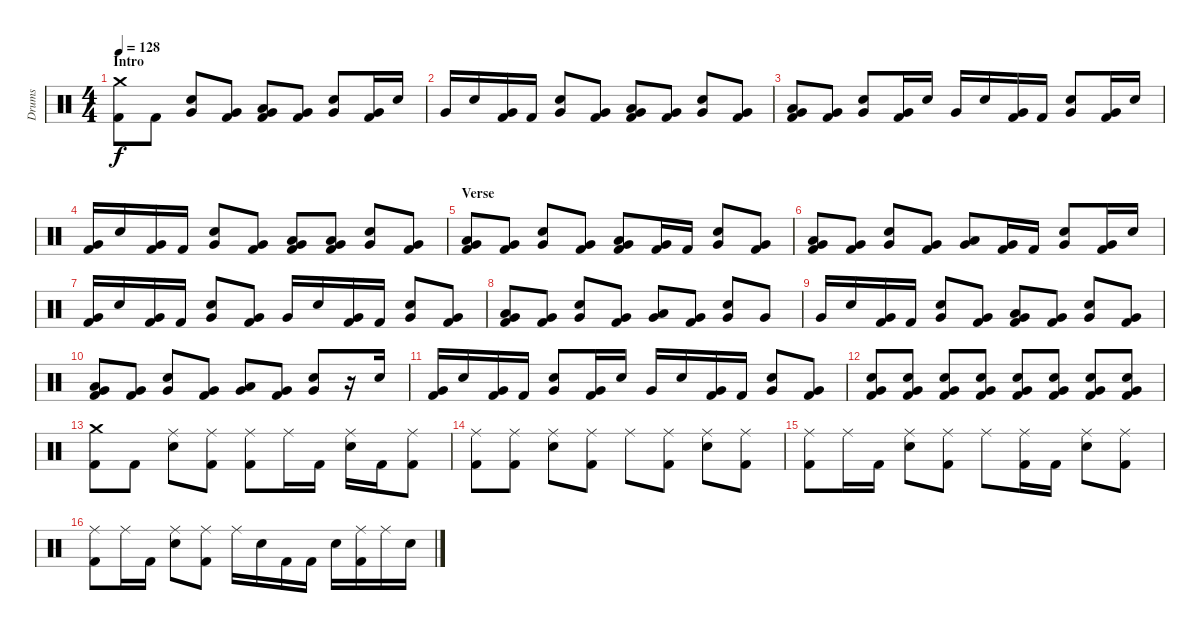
\track ("Drums" "Drums") {instrument percussion}
\staff {score}
\articulation defaults
\ts (4 4)
\section ("" "Intro")
\tempo 128
\clef neutral
\ks c
("Crash medium (hit)" "Kick (hit) 2").8{dy f} "Kick (hit) 2".8 ("Snare (hit) 2" "Very Low Tom (hit)").8 ("Kick (hit) 2" "Very Low Tom (hit)").8 ("Kick (hit) 2" "Very Low Tom (hit)" "Low Tom (hit)").8 ("Kick (hit) 2" "Very Low Tom (hit)").8 ("Snare (hit) 2" "Very Low Tom (hit)").8 ("Kick (hit) 2" "Very Low Tom (hit)").16 "Snare (hit) 2".16 |
"Very Low Tom (hit)".16 "Snare (hit) 2".16 ("Kick (hit) 2" "Very Low Tom (hit)").16 "Kick (hit) 2".16 ("Snare (hit) 2" "Very Low Tom (hit)").8 ("Kick (hit) 2" "Very Low Tom (hit)").8 ("Kick (hit) 2" "Very Low Tom (hit)" "Low Tom (hit)").8 ("Kick (hit) 2" "Very Low Tom (hit)").8 ("Snare (hit) 2" "Very Low Tom (hit)").8 ("Kick (hit) 2" "Very Low Tom (hit)").8 |
("Kick (hit) 2" "Very Low Tom (hit)" "Low Tom (hit)").8 ("Kick (hit) 2" "Very Low Tom (hit)").8 ("Snare (hit) 2" "Very Low Tom (hit)").8 ("Kick (hit) 2" "Very Low Tom (hit)").16 "Snare (hit) 2".16 "Very Low Tom (hit)".16 "Snare (hit) 2".16 ("Kick (hit) 2" "Very Low Tom (hit)").16 "Kick (hit) 2".16 ("Snare (hit) 2" "Very Low Tom (hit)").8 ("Kick (hit) 2" "Very Low Tom (hit)").16 "Snare (hit) 2".16 |
("Kick (hit) 2" "Very Low Tom (hit)").16 "Snare (hit) 2".16 ("Kick (hit) 2" "Very Low Tom (hit)").16 "Kick (hit) 2".16 ("Snare (hit) 2" "Very Low Tom (hit)").8 ("Kick (hit) 2" "Very Low Tom (hit)").8 ("Kick (hit) 2" "Very Low Tom (hit)" "Low Tom (hit)").8 ("Kick (hit) 2" "Very Low Tom (hit)" "Low Tom (hit)").8 ("Snare (hit) 2" "Very Low Tom (hit)").8 ("Kick (hit) 2" "Very Low Tom (hit)").8 |
\section ("" "Verse")
("Kick (hit) 2" "Very Low Tom (hit)" "Low Tom (hit)").8 ("Kick (hit) 2" "Very Low Tom (hit)").8 ("Snare (hit) 2" "Very Low Tom (hit)").8 ("Kick (hit) 2" "Very Low Tom (hit)").8 ("Kick (hit) 2" "Very Low Tom (hit)" "Low Tom (hit)").8 ("Kick (hit) 2" "Very Low Tom (hit)").16 "Kick (hit) 2".16 ("Snare (hit) 2" "Very Low Tom (hit)").8 ("Kick (hit) 2" "Very Low Tom (hit)").8 |
("Kick (hit) 2" "Very Low Tom (hit)" "Low Tom (hit)").8 ("Kick (hit) 2" "Very Low Tom (hit)").8 ("Snare (hit) 2" "Very Low Tom (hit)").8 ("Kick (hit) 2" "Very Low Tom (hit)").8 ("Very Low Tom (hit)" "Low Tom (hit)").8 ("Kick (hit) 2" "Very Low Tom (hit)").16 "Kick (hit) 2".16 ("Snare (hit) 2" "Very Low Tom (hit)").8 ("Kick (hit) 2" "Very Low Tom (hit)").16 "Snare (hit) 2".16 |
("Kick (hit) 2" "Very Low Tom (hit)").16 "Snare (hit) 2".16 ("Kick (hit) 2" "Very Low Tom (hit)").16 "Kick (hit) 2".16 ("Snare (hit) 2" "Very Low Tom (hit)").8 ("Kick (hit) 2" "Very Low Tom (hit)").8 "Very Low Tom (hit)".16 "Snare (hit) 2".16 ("Kick (hit) 2" "Very Low Tom (hit)").16 "Kick (hit) 2".16 ("Snare (hit) 2" "Very Low Tom (hit)").8 ("Kick (hit) 2" "Very Low Tom (hit)").8 |
("Kick (hit) 2" "Very Low Tom (hit)" "Low Tom (hit)").8 ("Kick (hit) 2" "Very Low Tom (hit)").8 ("Snare (hit) 2" "Very Low Tom (hit)").8 ("Kick (hit) 2" "Very Low Tom (hit)").8 ("Very Low Tom (hit)" "Low Tom (hit)").8 ("Kick (hit) 2" "Very Low Tom (hit)").8 ("Snare (hit) 2" "Very Low Tom (hit)").8 "Very Low Tom (hit)".8 |
"Very Low Tom (hit)".16 "Snare (hit) 2".16 ("Kick (hit) 2" "Very Low Tom (hit)").16 "Kick (hit) 2".16 ("Snare (hit) 2" "Very Low Tom (hit)").8 ("Kick (hit) 2" "Very Low Tom (hit)").8 ("Kick (hit) 2" "Very Low Tom (hit)" "Low Tom (hit)").8 ("Kick (hit) 2" "Very Low Tom (hit)").8 ("Snare (hit) 2" "Very Low Tom (hit)").8 ("Kick (hit) 2" "Very Low Tom (hit)").8 |
("Kick (hit) 2" "Very Low Tom (hit)" "Low Tom (hit)").8 ("Kick (hit) 2" "Very Low Tom (hit)").8 ("Snare (hit) 2" "Very Low Tom (hit)").8 ("Kick (hit) 2" "Very Low Tom (hit)").8 ("Very Low Tom (hit)" "Low Tom (hit)").8 ("Kick (hit) 2" "Very Low Tom (hit)").8 ("Snare (hit) 2" "Very Low Tom (hit)").8 r.16 "Snare (hit) 2".16 |
("Kick (hit) 2" "Very Low Tom (hit)").16 "Snare (hit) 2".16 ("Kick (hit) 2" "Very Low Tom (hit)").16 "Kick (hit) 2".16 ("Snare (hit) 2" "Very Low Tom (hit)").8 ("Kick (hit) 2" "Very Low Tom (hit)").16 "Snare (hit) 2".16 "Very Low Tom (hit)".16 "Snare (hit) 2".16 ("Kick (hit) 2" "Very Low Tom (hit)").16 "Kick (hit) 2".16 ("Snare (hit) 2" "Very Low Tom (hit)").8 ("Kick (hit) 2" "Very Low Tom (hit)").8 |
("Snare (hit) 2" "Kick (hit) 2" "Very Low Tom (hit)").8 ("Snare (hit) 2" "Kick (hit) 2" "Very Low Tom (hit)").8 ("Snare (hit) 2" "Kick (hit) 2" "Very Low Tom (hit)").8 ("Snare (hit) 2" "Kick (hit) 2" "Very Low Tom (hit)").8 ("Snare (hit) 2" "Kick (hit) 2" "Very Low Tom (hit)").8 ("Snare (hit) 2" "Kick (hit) 2" "Very Low Tom (hit)").8 ("Snare (hit) 2" "Kick (hit) 2" "Very Low Tom (hit)").8 ("Snare (hit) 2" "Kick (hit) 2" "Very Low Tom (hit)").8 |
("Crash medium (hit)" "Kick (hit) 2").8 "Kick (hit) 2".8 ("Ride (middle)" "Snare (hit) 2").8 ("Ride (middle)" "Kick (hit) 2").8 ("Ride (middle)" "Kick (hit) 2").8 "Ride (middle)".16 "Kick (hit) 2".16 ("Ride (middle)" "Snare (hit) 2").16 "Kick (hit) 2".16 ("Ride (middle)" "Kick (hit) 2").8 |
("Ride (middle)" "Kick (hit) 2").8 ("Ride (middle)" "Kick (hit) 2").8 ("Ride (middle)" "Snare (hit) 2").8 ("Ride (middle)" "Kick (hit) 2").8 "Ride (middle)".8 ("Ride (middle)" "Kick (hit) 2").8 ("Ride (middle)" "Snare (hit) 2").8 ("Ride (middle)" "Kick (hit) 2").8 |
("Ride (middle)" "Kick (hit) 2").8 "Ride (middle)".16 "Kick (hit) 2".16 ("Ride (middle)" "Snare (hit) 2").8 ("Ride (middle)" "Kick (hit) 2").8 "Ride (middle)".8 ("Ride (middle)" "Kick (hit) 2").16 "Kick (hit) 2".16 ("Ride (middle)" "Snare (hit) 2").8 ("Ride (middle)" "Kick (hit) 2").8 |
("Ride (middle)" "Kick (hit) 2").8 "Ride (middle)".16 "Kick (hit) 2".16 ("Ride (middle)" "Snare (hit) 2").8 ("Ride (middle)" "Kick (hit) 2").8 "Ride (middle)".16 "Snare (hit) 2".16 "Kick (hit) 2".16 "Kick (hit) 2".16 "Snare (hit) 2".16 ("Ride (middle)" "Kick (hit) 2").16 "Ride (middle)".16 "Snare (hit) 2".16
